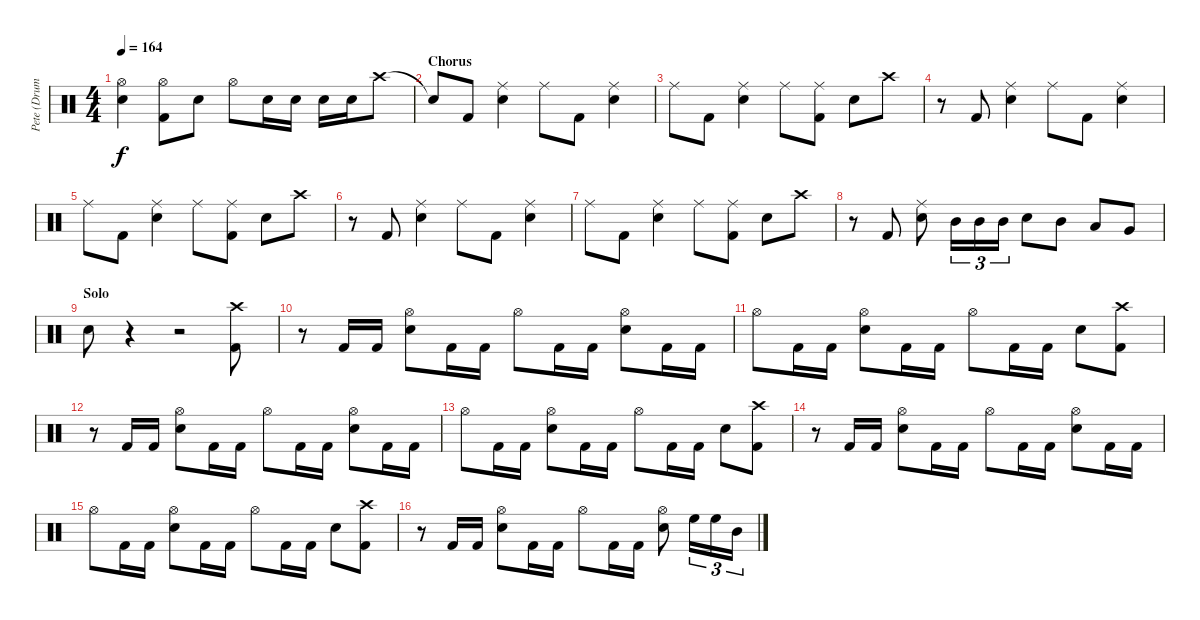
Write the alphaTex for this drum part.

\track ("Pete (Drums)" "Pete (Drum") {instrument percussion}
\staff {score}
\articulation defaults
\ts (4 4)
\tempo 164
\clef neutral
\ks c
("Hi-Hat (open)" "Snare (hit) 2").4{dy f} ("Hi-Hat (open)" "Kick (hit) 2").8 "Snare (hit) 2".8 "Hi-Hat (open)".8 "Snare (hit) 2".16 "Snare (hit) 2".16 "Snare (hit) 2".16 "Snare (hit) 2".16 "Crash high (hit)".8 |
\section ("" "Chorus")
"Snare (hit)"{t}.8 "Kick (hit) 2".8 ("Ride (middle)" "Snare (hit) 2").4 "Ride (middle)".8 "Kick (hit) 2".8 ("Ride (middle)" "Snare (hit) 2").4 |
"Ride (middle)".8 "Kick (hit) 2".8 ("Ride (middle)" "Snare (hit) 2").4 "Ride (middle)".8 ("Ride (middle)" "Kick (hit) 2").8 "Snare (hit) 2".8 "Crash high (hit)".8 |
r.8 "Kick (hit) 2".8 ("Ride (middle)" "Snare (hit) 2").4 "Ride (middle)".8 "Kick (hit) 2".8 ("Ride (middle)" "Snare (hit) 2").4 |
"Ride (middle)".8 "Kick (hit) 2".8 ("Ride (middle)" "Snare (hit) 2").4 "Ride (middle)".8 ("Ride (middle)" "Kick (hit) 2").8 "Snare (hit) 2".8 "Crash high (hit)".8 |
r.8 "Kick (hit) 2".8 ("Ride (middle)" "Snare (hit) 2").4 "Ride (middle)".8 "Kick (hit) 2".8 ("Ride (middle)" "Snare (hit) 2").4 |
"Ride (middle)".8 "Kick (hit) 2".8 ("Ride (middle)" "Snare (hit) 2").4 "Ride (middle)".8 ("Ride (middle)" "Kick (hit) 2").8 "Snare (hit) 2".8 "Crash high (hit)".8 |
r.8 "Kick (hit) 2".8 ("Ride (middle)" "Snare (hit) 2").8 "Mid Tom (hit)".16{tu (3 2)} "Mid Tom (hit)".16{tu (3 2)} "Mid Tom (hit)".16{tu (3 2)} "Snare (hit) 2".8 "Mid Tom (hit)".8 "Low Tom (hit)".8 "Very Low Tom (hit)".8 |
\section ("" "Solo")
"Snare (hit) 2".8 r.4 r.2 ("Crash high (hit)" "Kick (hit) 2").8 |
r.8 "Kick (hit) 2".16 "Kick (hit) 2".16 ("Hi-Hat (open)" "Snare (hit) 2").8 "Kick (hit) 2".16 "Kick (hit) 2".16 "Hi-Hat (open)".8 "Kick (hit) 2".16 "Kick (hit) 2".16 ("Hi-Hat (open)" "Snare (hit) 2").8 "Kick (hit) 2".16 "Kick (hit) 2".16 |
"Hi-Hat (open)".8 "Kick (hit) 2".16 "Kick (hit) 2".16 ("Hi-Hat (open)" "Snare (hit) 2").8 "Kick (hit) 2".16 "Kick (hit) 2".16 "Hi-Hat (open)".8 "Kick (hit) 2".16 "Kick (hit) 2".16 "Snare (hit) 2".8 ("Crash high (hit)" "Kick (hit) 2").8 |
r.8 "Kick (hit) 2".16 "Kick (hit) 2".16 ("Hi-Hat (open)" "Snare (hit) 2").8 "Kick (hit) 2".16 "Kick (hit) 2".16 "Hi-Hat (open)".8 "Kick (hit) 2".16 "Kick (hit) 2".16 ("Hi-Hat (open)" "Snare (hit) 2").8 "Kick (hit) 2".16 "Kick (hit) 2".16 |
"Hi-Hat (open)".8 "Kick (hit) 2".16 "Kick (hit) 2".16 ("Hi-Hat (open)" "Snare (hit) 2").8 "Kick (hit) 2".16 "Kick (hit) 2".16 "Hi-Hat (open)".8 "Kick (hit) 2".16 "Kick (hit) 2".16 "Snare (hit) 2".8 ("Crash high (hit)" "Kick (hit) 2").8 |
r.8 "Kick (hit) 2".16 "Kick (hit) 2".16 ("Hi-Hat (open)" "Snare (hit) 2").8 "Kick (hit) 2".16 "Kick (hit) 2".16 "Hi-Hat (open)".8 "Kick (hit) 2".16 "Kick (hit) 2".16 ("Hi-Hat (open)" "Snare (hit) 2").8 "Kick (hit) 2".16 "Kick (hit) 2".16 |
"Hi-Hat (open)".8 "Kick (hit) 2".16 "Kick (hit) 2".16 ("Hi-Hat (open)" "Snare (hit) 2").8 "Kick (hit) 2".16 "Kick (hit) 2".16 "Hi-Hat (open)".8 "Kick (hit) 2".16 "Kick (hit) 2".16 "Snare (hit) 2".8 ("Crash high (hit)" "Kick (hit) 2").8 |
r.8 "Kick (hit) 2".16 "Kick (hit) 2".16 ("Hi-Hat (open)" "Snare (hit) 2").8 "Kick (hit) 2".16 "Kick (hit) 2".16 "Hi-Hat (open)".8 "Kick (hit) 2".16 "Kick (hit) 2".16 ("Hi-Hat (open)" "Snare (hit) 2").8 "High Floor Tom (hit)".16{tu (3 2)} "High Floor Tom (hit)".16{tu (3 2)} "Mid Tom (hit)".16{tu (3 2)}
